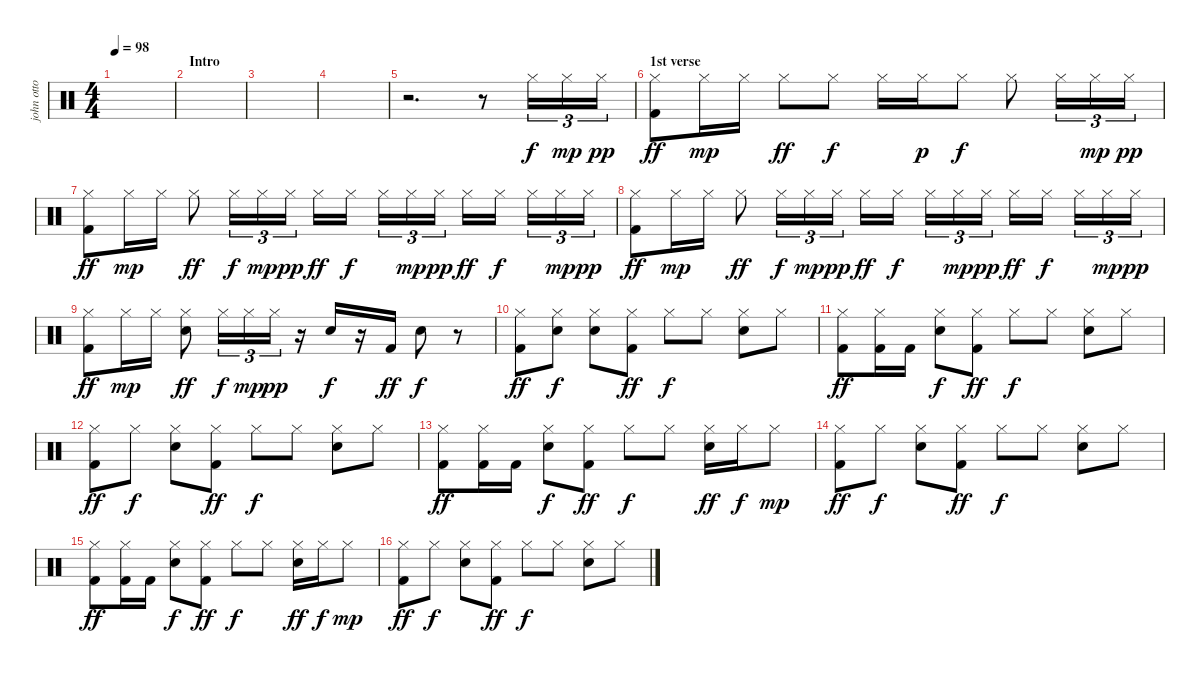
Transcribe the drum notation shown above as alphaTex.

\track ("john otto" "john otto") {instrument percussion}
\staff {score}
\articulation defaults
\ts (4 4)
\tempo 98
\clef neutral
\ks c
|
\section ("" "Intro")
|
|
|
r.2{d} r.8 "Hi-Hat (closed)".16{tu (3 2)} "Hi-Hat (closed)".16{tu (3 2) dy mp} "Hi-Hat (closed)".16{tu (3 2) dy pp} |
\section ("" "1st verse")
("Hi-Hat (closed)" "Kick (hit) 2").8{dy ff} "Hi-Hat (closed)".16{dy mp} "Hi-Hat (closed)".16 "Hi-Hat (closed)".8{dy ff} "Hi-Hat (closed)".8{dy f} "Hi-Hat (closed)".16 "Hi-Hat (closed)".16{dy p} "Hi-Hat (closed)".8{dy f} "Hi-Hat (closed)".8 "Hi-Hat (closed)".16{tu (3 2)} "Hi-Hat (closed)".16{tu (3 2) dy mp} "Hi-Hat (closed)".16{tu (3 2) dy pp} |
("Hi-Hat (closed)" "Kick (hit) 2").8{dy ff} "Hi-Hat (closed)".16{dy mp} "Hi-Hat (closed)".16 "Hi-Hat (closed)".8{dy ff} "Hi-Hat (closed)".16{tu (3 2) dy f} "Hi-Hat (closed)".16{tu (3 2) dy mp} "Hi-Hat (closed)".16{tu (3 2) dy pp} "Hi-Hat (closed)".16{dy ff} "Hi-Hat (closed)".16{dy f} "Hi-Hat (closed)".16{tu (3 2)} "Hi-Hat (closed)".16{tu (3 2) dy mp} "Hi-Hat (closed)".16{tu (3 2) dy pp} "Hi-Hat (closed)".16{dy ff} "Hi-Hat (closed)".16{dy f} "Hi-Hat (closed)".16{tu (3 2)} "Hi-Hat (closed)".16{tu (3 2) dy mp} "Hi-Hat (closed)".16{tu (3 2) dy pp} |
("Hi-Hat (closed)" "Kick (hit) 2").8{dy ff} "Hi-Hat (closed)".16{dy mp} "Hi-Hat (closed)".16 "Hi-Hat (closed)".8{dy ff} "Hi-Hat (closed)".16{tu (3 2) dy f} "Hi-Hat (closed)".16{tu (3 2) dy mp} "Hi-Hat (closed)".16{tu (3 2) dy pp} "Hi-Hat (closed)".16{dy ff} "Hi-Hat (closed)".16{dy f} "Hi-Hat (closed)".16{tu (3 2)} "Hi-Hat (closed)".16{tu (3 2) dy mp} "Hi-Hat (closed)".16{tu (3 2) dy pp} "Hi-Hat (closed)".16{dy ff} "Hi-Hat (closed)".16{dy f} "Hi-Hat (closed)".16{tu (3 2)} "Hi-Hat (closed)".16{tu (3 2) dy mp} "Hi-Hat (closed)".16{tu (3 2) dy pp} |
("Hi-Hat (closed)" "Kick (hit) 2").8{dy ff} "Hi-Hat (closed)".16{dy mp} "Hi-Hat (closed)".16 ("Hi-Hat (closed)" "Hand Clap (hit)").8{dy ff} "Hi-Hat (closed)".16{tu (3 2) dy f} "Hi-Hat (closed)".16{tu (3 2) dy mp} "Hi-Hat (closed)".16{tu (3 2) dy pp} r.16 "Hand Clap (hit)".16{dy f} r.16 "Kick (hit) 2".16{dy ff} "Hand Clap (hit)".8{dy f} r.8 |
("Hi-Hat (closed)" "Kick (hit) 2").8{dy ff} ("Hi-Hat (closed)" "Hand Clap (hit)").8{dy f} ("Hi-Hat (closed)" "Snare (hit) 2").8 ("Hi-Hat (closed)" "Kick (hit) 2").8{dy ff} "Hi-Hat (closed)".8{dy f} "Hi-Hat (closed)".8 ("Hi-Hat (closed)" "Snare (hit) 2").8 "Hi-Hat (closed)".8 |
("Hi-Hat (closed)" "Kick (hit) 2").8{dy ff} ("Hi-Hat (closed)" "Kick (hit) 2").16 "Kick (hit) 2".16 ("Hi-Hat (closed)" "Snare (hit) 2").8{dy f} ("Hi-Hat (closed)" "Kick (hit) 2").8{dy ff} "Hi-Hat (closed)".8{dy f} "Hi-Hat (closed)".8 ("Hi-Hat (closed)" "Snare (hit) 2").8 "Hi-Hat (closed)".8 |
("Hi-Hat (closed)" "Kick (hit) 2").8{dy ff} "Hi-Hat (closed)".8{dy f} ("Hi-Hat (closed)" "Snare (hit) 2").8 ("Hi-Hat (closed)" "Kick (hit) 2").8{dy ff} "Hi-Hat (closed)".8{dy f} "Hi-Hat (closed)".8 ("Hi-Hat (closed)" "Snare (hit) 2").8 "Hi-Hat (closed)".8 |
("Hi-Hat (closed)" "Kick (hit) 2").8{dy ff} ("Hi-Hat (closed)" "Kick (hit) 2").16 "Kick (hit) 2".16 ("Hi-Hat (closed)" "Snare (hit) 2").8{dy f} ("Hi-Hat (closed)" "Kick (hit) 2").8{dy ff} "Hi-Hat (closed)".8{dy f} "Hi-Hat (closed)".8 ("Hi-Hat (closed)" "Snare (hit) 2").16{dy ff} "Hi-Hat (closed)".16{dy f} "Hi-Hat (closed)".8{dy mp} |
("Hi-Hat (closed)" "Kick (hit) 2").8{dy ff} "Hi-Hat (closed)".8{dy f} ("Hi-Hat (closed)" "Snare (hit) 2").8 ("Hi-Hat (closed)" "Kick (hit) 2").8{dy ff} "Hi-Hat (closed)".8{dy f} "Hi-Hat (closed)".8 ("Hi-Hat (closed)" "Snare (hit) 2").8 "Hi-Hat (closed)".8 |
("Hi-Hat (closed)" "Kick (hit) 2").8{dy ff} ("Hi-Hat (closed)" "Kick (hit) 2").16 "Kick (hit) 2".16 ("Hi-Hat (closed)" "Snare (hit) 2").8{dy f} ("Hi-Hat (closed)" "Kick (hit) 2").8{dy ff} "Hi-Hat (closed)".8{dy f} "Hi-Hat (closed)".8 ("Hi-Hat (closed)" "Snare (hit) 2").16{dy ff} "Hi-Hat (closed)".16{dy f} "Hi-Hat (closed)".8{dy mp} |
("Hi-Hat (closed)" "Kick (hit) 2").8{dy ff} "Hi-Hat (closed)".8{dy f} ("Hi-Hat (closed)" "Snare (hit) 2").8 ("Hi-Hat (closed)" "Kick (hit) 2").8{dy ff} "Hi-Hat (closed)".8{dy f} "Hi-Hat (closed)".8 ("Hi-Hat (closed)" "Snare (hit) 2").8 "Hi-Hat (closed)".8
